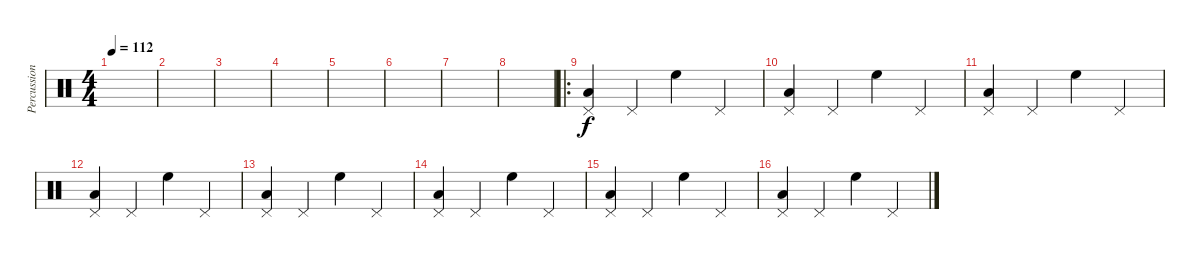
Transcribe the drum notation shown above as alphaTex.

\track ("Percussion" "Percussion") {instrument percussion}
\staff {score}
\articulation defaults
\ts (4 4)
\tempo 112
\clef neutral
\ks c
|
|
|
|
|
|
|
|
\ro
("Low Floor Tom (hit)" "Pedal Hi-Hat (hit)").4 "Pedal Hi-Hat (hit)".4 "High Floor Tom (hit)".4 "Pedal Hi-Hat (hit)".4 |
("Low Floor Tom (hit)" "Pedal Hi-Hat (hit)").4 "Pedal Hi-Hat (hit)".4 "High Floor Tom (hit)".4 "Pedal Hi-Hat (hit)".4 |
("Low Floor Tom (hit)" "Pedal Hi-Hat (hit)").4 "Pedal Hi-Hat (hit)".4 "High Floor Tom (hit)".4 "Pedal Hi-Hat (hit)".4 |
("Low Floor Tom (hit)" "Pedal Hi-Hat (hit)").4 "Pedal Hi-Hat (hit)".4 "High Floor Tom (hit)".4 "Pedal Hi-Hat (hit)".4 |
("Low Floor Tom (hit)" "Pedal Hi-Hat (hit)").4 "Pedal Hi-Hat (hit)".4 "High Floor Tom (hit)".4 "Pedal Hi-Hat (hit)".4 |
("Low Floor Tom (hit)" "Pedal Hi-Hat (hit)").4 "Pedal Hi-Hat (hit)".4 "High Floor Tom (hit)".4 "Pedal Hi-Hat (hit)".4 |
("Low Floor Tom (hit)" "Pedal Hi-Hat (hit)").4 "Pedal Hi-Hat (hit)".4 "High Floor Tom (hit)".4 "Pedal Hi-Hat (hit)".4 |
("Low Floor Tom (hit)" "Pedal Hi-Hat (hit)").4 "Pedal Hi-Hat (hit)".4 "High Floor Tom (hit)".4 "Pedal Hi-Hat (hit)".4
